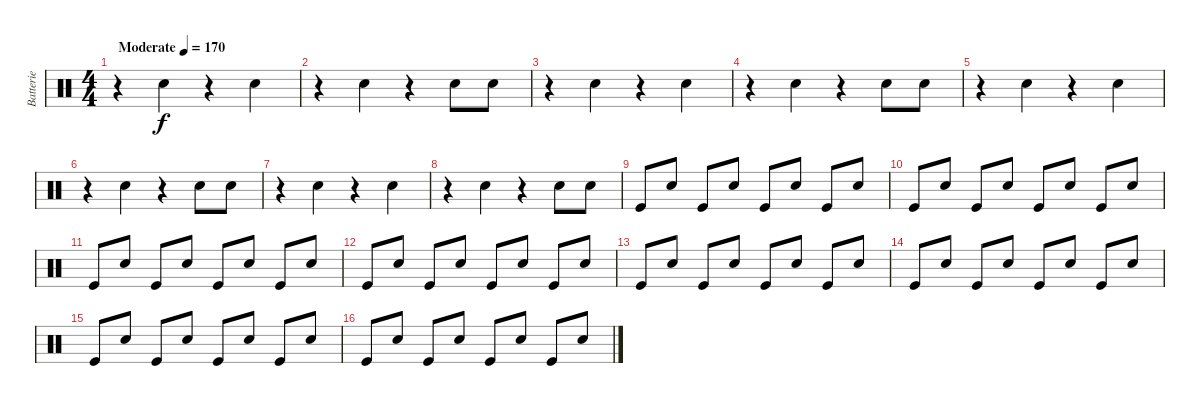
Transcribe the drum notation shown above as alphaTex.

\track ("Batterie" "Batterie") {instrument percussion}
\staff {score}
\articulation defaults
\ts (4 4)
\tempo (170 "Moderate")
\clef neutral
\ks c
r.4{dy f} "Snare (hit) 2".4 r.4 "Snare (hit) 2".4 |
r.4 "Snare (hit) 2".4 r.4 "Snare (hit) 2".8 "Snare (hit) 2".8 |
r.4 "Snare (hit) 2".4 r.4 "Snare (hit) 2".4 |
r.4 "Snare (hit) 2".4 r.4 "Snare (hit) 2".8 "Snare (hit) 2".8 |
r.4 "Snare (hit) 2".4 r.4 "Snare (hit) 2".4 |
r.4 "Snare (hit) 2".4 r.4 "Snare (hit) 2".8 "Snare (hit) 2".8 |
r.4 "Snare (hit) 2".4 r.4 "Snare (hit) 2".4 |
r.4 "Snare (hit) 2".4 r.4 "Snare (hit) 2".8 "Snare (hit) 2".8 |
"Kick (hit)".8 "Snare (hit) 2".8 "Kick (hit)".8 "Snare (hit) 2".8 "Kick (hit)".8 "Snare (hit) 2".8 "Kick (hit)".8 "Snare (hit) 2".8 |
"Kick (hit)".8 "Snare (hit) 2".8 "Kick (hit)".8 "Snare (hit) 2".8 "Kick (hit)".8 "Snare (hit) 2".8 "Kick (hit)".8 "Snare (hit) 2".8 |
"Kick (hit)".8 "Snare (hit) 2".8 "Kick (hit)".8 "Snare (hit) 2".8 "Kick (hit)".8 "Snare (hit) 2".8 "Kick (hit)".8 "Snare (hit) 2".8 |
"Kick (hit)".8 "Snare (hit) 2".8 "Kick (hit)".8 "Snare (hit) 2".8 "Kick (hit)".8 "Snare (hit) 2".8 "Kick (hit)".8 "Snare (hit) 2".8 |
"Kick (hit)".8 "Snare (hit) 2".8 "Kick (hit)".8 "Snare (hit) 2".8 "Kick (hit)".8 "Snare (hit) 2".8 "Kick (hit)".8 "Snare (hit) 2".8 |
"Kick (hit)".8 "Snare (hit) 2".8 "Kick (hit)".8 "Snare (hit) 2".8 "Kick (hit)".8 "Snare (hit) 2".8 "Kick (hit)".8 "Snare (hit) 2".8 |
"Kick (hit)".8 "Snare (hit) 2".8 "Kick (hit)".8 "Snare (hit) 2".8 "Kick (hit)".8 "Snare (hit) 2".8 "Kick (hit)".8 "Snare (hit) 2".8 |
"Kick (hit)".8 "Snare (hit) 2".8 "Kick (hit)".8 "Snare (hit) 2".8 "Kick (hit)".8 "Snare (hit) 2".8 "Kick (hit)".8 "Snare (hit) 2".8
